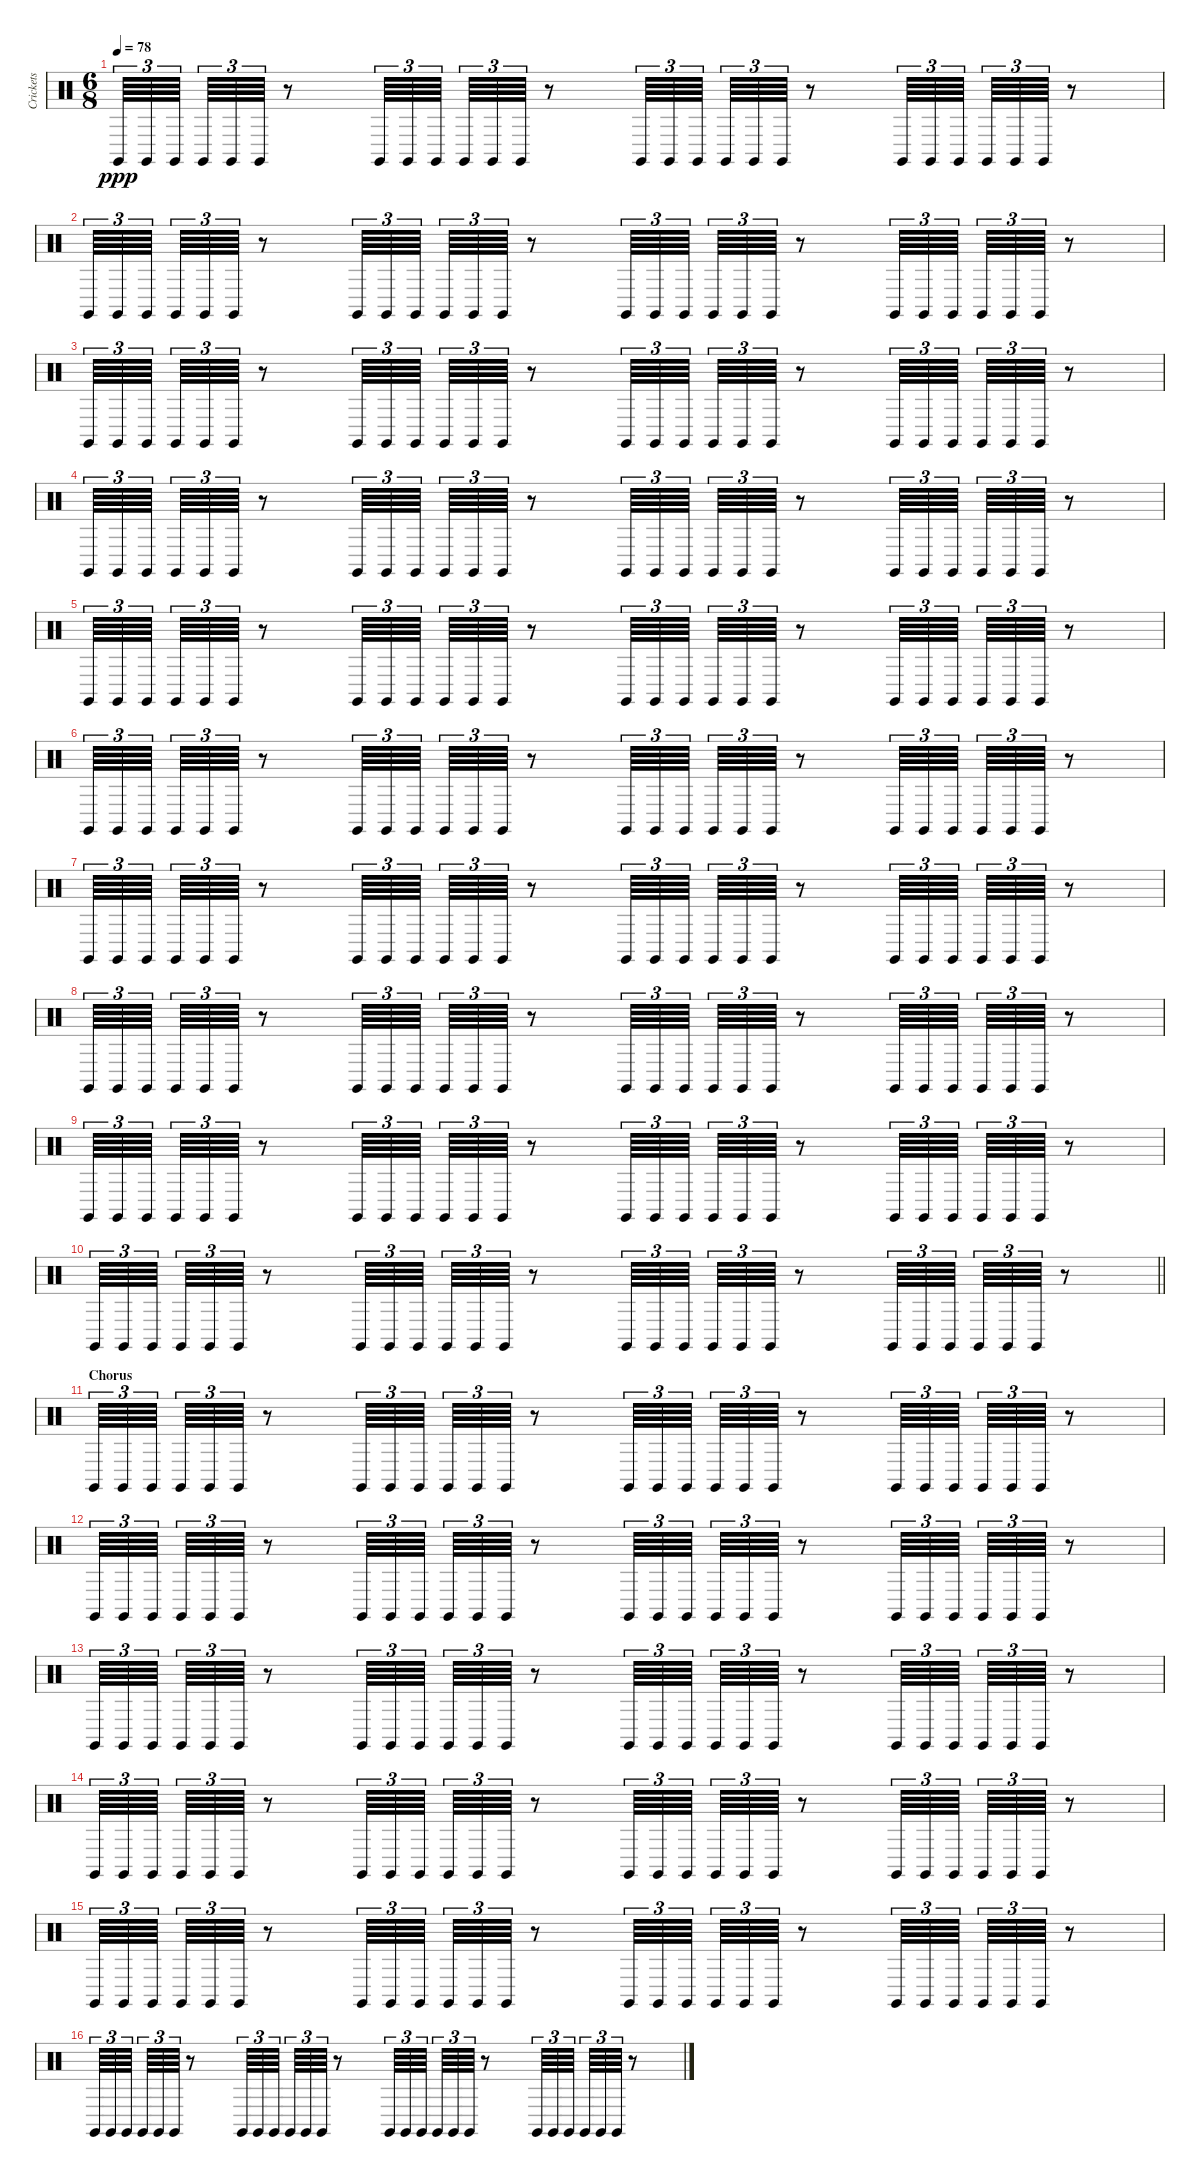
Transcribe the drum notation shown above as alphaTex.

\track ("Crickets" "Crickets") {instrument percussion}
\staff {score}
\articulation defaults
\ts (6 8)
\tempo 78
\clef neutral
\ks c "Claves (hit)".64{tu (3 2) dy ppp} "Claves (hit)".64{tu (3 2)} "Claves (hit)".64{tu (3 2) beam splitsecondary} "Claves (hit)".64{tu (3 2)} "Claves (hit)".64{tu (3 2)} "Claves (hit)".64{tu (3 2)}
r.8 "Claves (hit)".64{tu (3 2)} "Claves (hit)".64{tu (3 2)} "Claves (hit)".64{tu (3 2) beam splitsecondary} "Claves (hit)".64{tu (3 2)} "Claves (hit)".64{tu (3 2)} "Claves (hit)".64{tu (3 2)} r.8 "Claves (hit)".64{tu (3 2)} "Claves (hit)".64{tu (3 2)} "Claves (hit)".64{tu (3 2) beam splitsecondary} "Claves (hit)".64{tu (3 2)} "Claves (hit)".64{tu (3 2)} "Claves (hit)".64{tu (3 2)} r.8 "Claves (hit)".64{tu (3 2)} "Claves (hit)".64{tu (3 2)} "Claves (hit)".64{tu (3 2) beam splitsecondary} "Claves (hit)".64{tu (3 2)} "Claves (hit)".64{tu (3 2)} "Claves (hit)".64{tu (3 2)} r.8 |
"Claves (hit)".64{tu (3 2)} "Claves (hit)".64{tu (3 2)} "Claves (hit)".64{tu (3 2) beam splitsecondary} "Claves (hit)".64{tu (3 2)} "Claves (hit)".64{tu (3 2)} "Claves (hit)".64{tu (3 2)} r.8 "Claves (hit)".64{tu (3 2)} "Claves (hit)".64{tu (3 2)} "Claves (hit)".64{tu (3 2) beam splitsecondary} "Claves (hit)".64{tu (3 2)} "Claves (hit)".64{tu (3 2)} "Claves (hit)".64{tu (3 2)} r.8 "Claves (hit)".64{tu (3 2)} "Claves (hit)".64{tu (3 2)} "Claves (hit)".64{tu (3 2) beam splitsecondary} "Claves (hit)".64{tu (3 2)} "Claves (hit)".64{tu (3 2)} "Claves (hit)".64{tu (3 2)} r.8 "Claves (hit)".64{tu (3 2)} "Claves (hit)".64{tu (3 2)} "Claves (hit)".64{tu (3 2) beam splitsecondary} "Claves (hit)".64{tu (3 2)} "Claves (hit)".64{tu (3 2)} "Claves (hit)".64{tu (3 2)} r.8 |
"Claves (hit)".64{tu (3 2)} "Claves (hit)".64{tu (3 2)} "Claves (hit)".64{tu (3 2) beam splitsecondary} "Claves (hit)".64{tu (3 2)} "Claves (hit)".64{tu (3 2)} "Claves (hit)".64{tu (3 2)} r.8 "Claves (hit)".64{tu (3 2)} "Claves (hit)".64{tu (3 2)} "Claves (hit)".64{tu (3 2) beam splitsecondary} "Claves (hit)".64{tu (3 2)} "Claves (hit)".64{tu (3 2)} "Claves (hit)".64{tu (3 2)} r.8 "Claves (hit)".64{tu (3 2)} "Claves (hit)".64{tu (3 2)} "Claves (hit)".64{tu (3 2) beam splitsecondary} "Claves (hit)".64{tu (3 2)} "Claves (hit)".64{tu (3 2)} "Claves (hit)".64{tu (3 2)} r.8 "Claves (hit)".64{tu (3 2)} "Claves (hit)".64{tu (3 2)} "Claves (hit)".64{tu (3 2) beam splitsecondary} "Claves (hit)".64{tu (3 2)} "Claves (hit)".64{tu (3 2)} "Claves (hit)".64{tu (3 2)} r.8 |
"Claves (hit)".64{tu (3 2)} "Claves (hit)".64{tu (3 2)} "Claves (hit)".64{tu (3 2) beam splitsecondary} "Claves (hit)".64{tu (3 2)} "Claves (hit)".64{tu (3 2)} "Claves (hit)".64{tu (3 2)} r.8 "Claves (hit)".64{tu (3 2)} "Claves (hit)".64{tu (3 2)} "Claves (hit)".64{tu (3 2) beam splitsecondary} "Claves (hit)".64{tu (3 2)} "Claves (hit)".64{tu (3 2)} "Claves (hit)".64{tu (3 2)} r.8 "Claves (hit)".64{tu (3 2)} "Claves (hit)".64{tu (3 2)} "Claves (hit)".64{tu (3 2) beam splitsecondary} "Claves (hit)".64{tu (3 2)} "Claves (hit)".64{tu (3 2)} "Claves (hit)".64{tu (3 2)} r.8 "Claves (hit)".64{tu (3 2)} "Claves (hit)".64{tu (3 2)} "Claves (hit)".64{tu (3 2) beam splitsecondary} "Claves (hit)".64{tu (3 2)} "Claves (hit)".64{tu (3 2)} "Claves (hit)".64{tu (3 2)} r.8 |
"Claves (hit)".64{tu (3 2)} "Claves (hit)".64{tu (3 2)} "Claves (hit)".64{tu (3 2) beam splitsecondary} "Claves (hit)".64{tu (3 2)} "Claves (hit)".64{tu (3 2)} "Claves (hit)".64{tu (3 2)} r.8 "Claves (hit)".64{tu (3 2)} "Claves (hit)".64{tu (3 2)} "Claves (hit)".64{tu (3 2) beam splitsecondary} "Claves (hit)".64{tu (3 2)} "Claves (hit)".64{tu (3 2)} "Claves (hit)".64{tu (3 2)} r.8 "Claves (hit)".64{tu (3 2)} "Claves (hit)".64{tu (3 2)} "Claves (hit)".64{tu (3 2) beam splitsecondary} "Claves (hit)".64{tu (3 2)} "Claves (hit)".64{tu (3 2)} "Claves (hit)".64{tu (3 2)} r.8 "Claves (hit)".64{tu (3 2)} "Claves (hit)".64{tu (3 2)} "Claves (hit)".64{tu (3 2) beam splitsecondary} "Claves (hit)".64{tu (3 2)} "Claves (hit)".64{tu (3 2)} "Claves (hit)".64{tu (3 2)} r.8 |
"Claves (hit)".64{tu (3 2)} "Claves (hit)".64{tu (3 2)} "Claves (hit)".64{tu (3 2) beam splitsecondary} "Claves (hit)".64{tu (3 2)} "Claves (hit)".64{tu (3 2)} "Claves (hit)".64{tu (3 2)} r.8 "Claves (hit)".64{tu (3 2)} "Claves (hit)".64{tu (3 2)} "Claves (hit)".64{tu (3 2) beam splitsecondary} "Claves (hit)".64{tu (3 2)} "Claves (hit)".64{tu (3 2)} "Claves (hit)".64{tu (3 2)} r.8 "Claves (hit)".64{tu (3 2)} "Claves (hit)".64{tu (3 2)} "Claves (hit)".64{tu (3 2) beam splitsecondary} "Claves (hit)".64{tu (3 2)} "Claves (hit)".64{tu (3 2)} "Claves (hit)".64{tu (3 2)} r.8 "Claves (hit)".64{tu (3 2)} "Claves (hit)".64{tu (3 2)} "Claves (hit)".64{tu (3 2) beam splitsecondary} "Claves (hit)".64{tu (3 2)} "Claves (hit)".64{tu (3 2)} "Claves (hit)".64{tu (3 2)} r.8 |
"Claves (hit)".64{tu (3 2)} "Claves (hit)".64{tu (3 2)} "Claves (hit)".64{tu (3 2) beam splitsecondary} "Claves (hit)".64{tu (3 2)} "Claves (hit)".64{tu (3 2)} "Claves (hit)".64{tu (3 2)} r.8 "Claves (hit)".64{tu (3 2)} "Claves (hit)".64{tu (3 2)} "Claves (hit)".64{tu (3 2) beam splitsecondary} "Claves (hit)".64{tu (3 2)} "Claves (hit)".64{tu (3 2)} "Claves (hit)".64{tu (3 2)} r.8 "Claves (hit)".64{tu (3 2)} "Claves (hit)".64{tu (3 2)} "Claves (hit)".64{tu (3 2) beam splitsecondary} "Claves (hit)".64{tu (3 2)} "Claves (hit)".64{tu (3 2)} "Claves (hit)".64{tu (3 2)} r.8 "Claves (hit)".64{tu (3 2)} "Claves (hit)".64{tu (3 2)} "Claves (hit)".64{tu (3 2) beam splitsecondary} "Claves (hit)".64{tu (3 2)} "Claves (hit)".64{tu (3 2)} "Claves (hit)".64{tu (3 2)} r.8 |
"Claves (hit)".64{tu (3 2)} "Claves (hit)".64{tu (3 2)} "Claves (hit)".64{tu (3 2) beam splitsecondary} "Claves (hit)".64{tu (3 2)} "Claves (hit)".64{tu (3 2)} "Claves (hit)".64{tu (3 2)} r.8 "Claves (hit)".64{tu (3 2)} "Claves (hit)".64{tu (3 2)} "Claves (hit)".64{tu (3 2) beam splitsecondary} "Claves (hit)".64{tu (3 2)} "Claves (hit)".64{tu (3 2)} "Claves (hit)".64{tu (3 2)} r.8 "Claves (hit)".64{tu (3 2)} "Claves (hit)".64{tu (3 2)} "Claves (hit)".64{tu (3 2) beam splitsecondary} "Claves (hit)".64{tu (3 2)} "Claves (hit)".64{tu (3 2)} "Claves (hit)".64{tu (3 2)} r.8 "Claves (hit)".64{tu (3 2)} "Claves (hit)".64{tu (3 2)} "Claves (hit)".64{tu (3 2) beam splitsecondary} "Claves (hit)".64{tu (3 2)} "Claves (hit)".64{tu (3 2)} "Claves (hit)".64{tu (3 2)} r.8 |
"Claves (hit)".64{tu (3 2)} "Claves (hit)".64{tu (3 2)} "Claves (hit)".64{tu (3 2) beam splitsecondary} "Claves (hit)".64{tu (3 2)} "Claves (hit)".64{tu (3 2)} "Claves (hit)".64{tu (3 2)} r.8 "Claves (hit)".64{tu (3 2)} "Claves (hit)".64{tu (3 2)} "Claves (hit)".64{tu (3 2) beam splitsecondary} "Claves (hit)".64{tu (3 2)} "Claves (hit)".64{tu (3 2)} "Claves (hit)".64{tu (3 2)} r.8 "Claves (hit)".64{tu (3 2)} "Claves (hit)".64{tu (3 2)} "Claves (hit)".64{tu (3 2) beam splitsecondary} "Claves (hit)".64{tu (3 2)} "Claves (hit)".64{tu (3 2)} "Claves (hit)".64{tu (3 2)} r.8 "Claves (hit)".64{tu (3 2)} "Claves (hit)".64{tu (3 2)} "Claves (hit)".64{tu (3 2) beam splitsecondary} "Claves (hit)".64{tu (3 2)} "Claves (hit)".64{tu (3 2)} "Claves (hit)".64{tu (3 2)} r.8 |
\barLineRight lightlight "Claves (hit)".64{tu (3 2)} "Claves (hit)".64{tu (3 2)} "Claves (hit)".64{tu (3 2) beam splitsecondary} "Claves (hit)".64{tu (3 2)} "Claves (hit)".64{tu (3 2)} "Claves (hit)".64{tu (3 2)}
r.8 "Claves (hit)".64{tu (3 2)} "Claves (hit)".64{tu (3 2)} "Claves (hit)".64{tu (3 2) beam splitsecondary} "Claves (hit)".64{tu (3 2)} "Claves (hit)".64{tu (3 2)} "Claves (hit)".64{tu (3 2)} r.8 "Claves (hit)".64{tu (3 2)} "Claves (hit)".64{tu (3 2)} "Claves (hit)".64{tu (3 2) beam splitsecondary} "Claves (hit)".64{tu (3 2)} "Claves (hit)".64{tu (3 2)} "Claves (hit)".64{tu (3 2)} r.8 "Claves (hit)".64{tu (3 2)} "Claves (hit)".64{tu (3 2)} "Claves (hit)".64{tu (3 2) beam splitsecondary} "Claves (hit)".64{tu (3 2)} "Claves (hit)".64{tu (3 2)} "Claves (hit)".64{tu (3 2)} r.8 |
\section ("" "Chorus")
"Claves (hit)".64{tu (3 2)} "Claves (hit)".64{tu (3 2)} "Claves (hit)".64{tu (3 2) beam splitsecondary} "Claves (hit)".64{tu (3 2)} "Claves (hit)".64{tu (3 2)} "Claves (hit)".64{tu (3 2)} r.8 "Claves (hit)".64{tu (3 2)} "Claves (hit)".64{tu (3 2)} "Claves (hit)".64{tu (3 2) beam splitsecondary} "Claves (hit)".64{tu (3 2)} "Claves (hit)".64{tu (3 2)} "Claves (hit)".64{tu (3 2)} r.8 "Claves (hit)".64{tu (3 2)} "Claves (hit)".64{tu (3 2)} "Claves (hit)".64{tu (3 2) beam splitsecondary} "Claves (hit)".64{tu (3 2)} "Claves (hit)".64{tu (3 2)} "Claves (hit)".64{tu (3 2)} r.8 "Claves (hit)".64{tu (3 2)} "Claves (hit)".64{tu (3 2)} "Claves (hit)".64{tu (3 2) beam splitsecondary} "Claves (hit)".64{tu (3 2)} "Claves (hit)".64{tu (3 2)} "Claves (hit)".64{tu (3 2)} r.8 |
"Claves (hit)".64{tu (3 2)} "Claves (hit)".64{tu (3 2)} "Claves (hit)".64{tu (3 2) beam splitsecondary} "Claves (hit)".64{tu (3 2)} "Claves (hit)".64{tu (3 2)} "Claves (hit)".64{tu (3 2)} r.8 "Claves (hit)".64{tu (3 2)} "Claves (hit)".64{tu (3 2)} "Claves (hit)".64{tu (3 2) beam splitsecondary} "Claves (hit)".64{tu (3 2)} "Claves (hit)".64{tu (3 2)} "Claves (hit)".64{tu (3 2)} r.8 "Claves (hit)".64{tu (3 2)} "Claves (hit)".64{tu (3 2)} "Claves (hit)".64{tu (3 2) beam splitsecondary} "Claves (hit)".64{tu (3 2)} "Claves (hit)".64{tu (3 2)} "Claves (hit)".64{tu (3 2)} r.8 "Claves (hit)".64{tu (3 2)} "Claves (hit)".64{tu (3 2)} "Claves (hit)".64{tu (3 2) beam splitsecondary} "Claves (hit)".64{tu (3 2)} "Claves (hit)".64{tu (3 2)} "Claves (hit)".64{tu (3 2)} r.8 |
"Claves (hit)".64{tu (3 2)} "Claves (hit)".64{tu (3 2)} "Claves (hit)".64{tu (3 2) beam splitsecondary} "Claves (hit)".64{tu (3 2)} "Claves (hit)".64{tu (3 2)} "Claves (hit)".64{tu (3 2)} r.8 "Claves (hit)".64{tu (3 2)} "Claves (hit)".64{tu (3 2)} "Claves (hit)".64{tu (3 2) beam splitsecondary} "Claves (hit)".64{tu (3 2)} "Claves (hit)".64{tu (3 2)} "Claves (hit)".64{tu (3 2)} r.8 "Claves (hit)".64{tu (3 2)} "Claves (hit)".64{tu (3 2)} "Claves (hit)".64{tu (3 2) beam splitsecondary} "Claves (hit)".64{tu (3 2)} "Claves (hit)".64{tu (3 2)} "Claves (hit)".64{tu (3 2)} r.8 "Claves (hit)".64{tu (3 2)} "Claves (hit)".64{tu (3 2)} "Claves (hit)".64{tu (3 2) beam splitsecondary} "Claves (hit)".64{tu (3 2)} "Claves (hit)".64{tu (3 2)} "Claves (hit)".64{tu (3 2)} r.8 |
"Claves (hit)".64{tu (3 2)} "Claves (hit)".64{tu (3 2)} "Claves (hit)".64{tu (3 2) beam splitsecondary} "Claves (hit)".64{tu (3 2)} "Claves (hit)".64{tu (3 2)} "Claves (hit)".64{tu (3 2)} r.8 "Claves (hit)".64{tu (3 2)} "Claves (hit)".64{tu (3 2)} "Claves (hit)".64{tu (3 2) beam splitsecondary} "Claves (hit)".64{tu (3 2)} "Claves (hit)".64{tu (3 2)} "Claves (hit)".64{tu (3 2)} r.8 "Claves (hit)".64{tu (3 2)} "Claves (hit)".64{tu (3 2)} "Claves (hit)".64{tu (3 2) beam splitsecondary} "Claves (hit)".64{tu (3 2)} "Claves (hit)".64{tu (3 2)} "Claves (hit)".64{tu (3 2)} r.8 "Claves (hit)".64{tu (3 2)} "Claves (hit)".64{tu (3 2)} "Claves (hit)".64{tu (3 2) beam splitsecondary} "Claves (hit)".64{tu (3 2)} "Claves (hit)".64{tu (3 2)} "Claves (hit)".64{tu (3 2)} r.8 |
"Claves (hit)".64{tu (3 2)} "Claves (hit)".64{tu (3 2)} "Claves (hit)".64{tu (3 2) beam splitsecondary} "Claves (hit)".64{tu (3 2)} "Claves (hit)".64{tu (3 2)} "Claves (hit)".64{tu (3 2)} r.8 "Claves (hit)".64{tu (3 2)} "Claves (hit)".64{tu (3 2)} "Claves (hit)".64{tu (3 2) beam splitsecondary} "Claves (hit)".64{tu (3 2)} "Claves (hit)".64{tu (3 2)} "Claves (hit)".64{tu (3 2)} r.8 "Claves (hit)".64{tu (3 2)} "Claves (hit)".64{tu (3 2)} "Claves (hit)".64{tu (3 2) beam splitsecondary} "Claves (hit)".64{tu (3 2)} "Claves (hit)".64{tu (3 2)} "Claves (hit)".64{tu (3 2)} r.8 "Claves (hit)".64{tu (3 2)} "Claves (hit)".64{tu (3 2)} "Claves (hit)".64{tu (3 2) beam splitsecondary} "Claves (hit)".64{tu (3 2)} "Claves (hit)".64{tu (3 2)} "Claves (hit)".64{tu (3 2)} r.8 |
"Claves (hit)".64{tu (3 2)} "Claves (hit)".64{tu (3 2)} "Claves (hit)".64{tu (3 2) beam splitsecondary} "Claves (hit)".64{tu (3 2)} "Claves (hit)".64{tu (3 2)} "Claves (hit)".64{tu (3 2)} r.8 "Claves (hit)".64{tu (3 2)} "Claves (hit)".64{tu (3 2)} "Claves (hit)".64{tu (3 2) beam splitsecondary} "Claves (hit)".64{tu (3 2)} "Claves (hit)".64{tu (3 2)} "Claves (hit)".64{tu (3 2)} r.8 "Claves (hit)".64{tu (3 2)} "Claves (hit)".64{tu (3 2)} "Claves (hit)".64{tu (3 2) beam splitsecondary} "Claves (hit)".64{tu (3 2)} "Claves (hit)".64{tu (3 2)} "Claves (hit)".64{tu (3 2)} r.8 "Claves (hit)".64{tu (3 2)} "Claves (hit)".64{tu (3 2)} "Claves (hit)".64{tu (3 2) beam splitsecondary} "Claves (hit)".64{tu (3 2)} "Claves (hit)".64{tu (3 2)} "Claves (hit)".64{tu (3 2)} r.8
